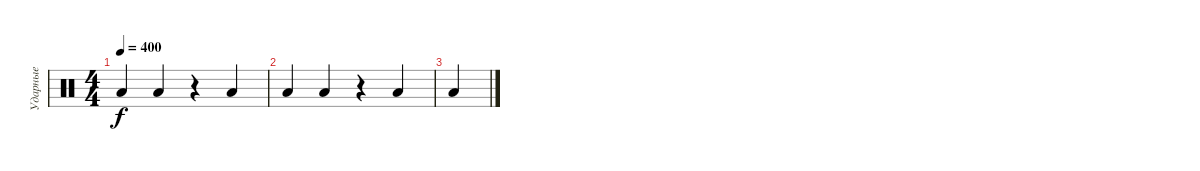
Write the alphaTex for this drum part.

\track ("Ударные" "Ударные") {instrument percussion}
\staff {score}
\articulation defaults
\ts (4 4)
\tempo 400
\clef neutral
\ks c "Low Floor Tom (hit)".4{dy f} "Low Floor Tom (hit)".4
r.4 "Low Floor Tom (hit)".4 |
"Low Floor Tom (hit)".4 "Low Floor Tom (hit)".4 r.4 "Low Floor Tom (hit)".4 |
"Low Floor Tom (hit)".4
